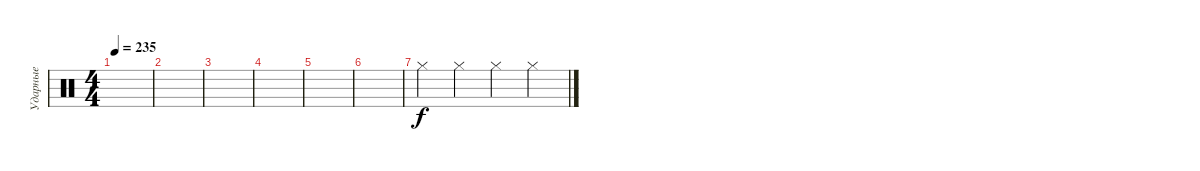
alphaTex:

\track ("Ударные" "Ударные") {instrument percussion}
\staff {score}
\articulation defaults
\ts (4 4)
\tempo 235
\clef neutral
\ks c
|
|
|
|
|
|
"Hi-Hat (closed)".4 "Hi-Hat (closed)".4 "Hi-Hat (closed)".4 "Hi-Hat (closed)".4
